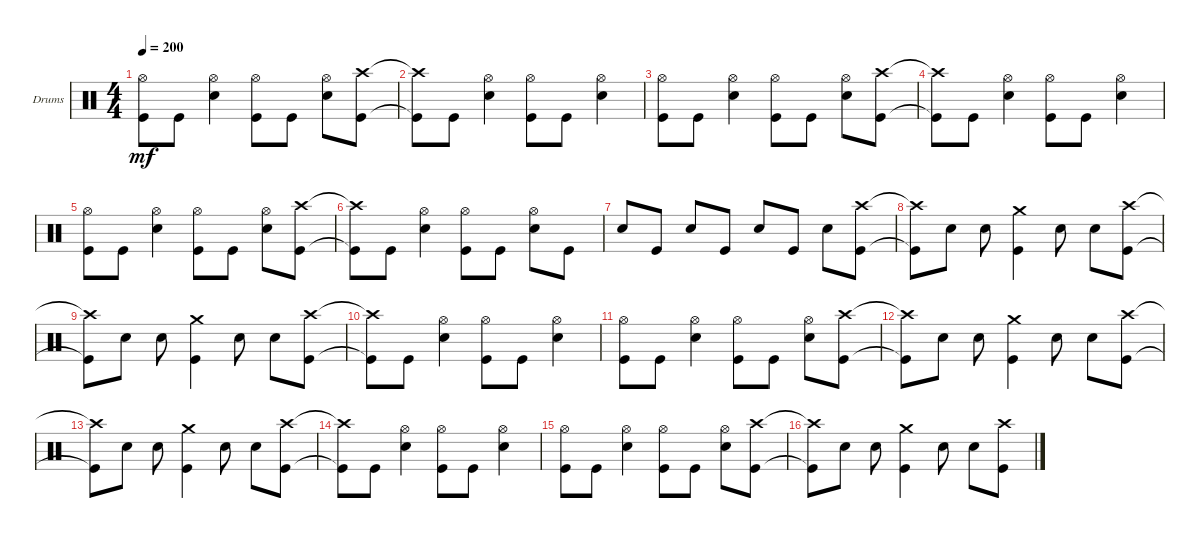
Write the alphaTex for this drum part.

\bracketExtendMode groupsimilarinstruments
\firstSystemTrackNameOrientation horizontal
\otherSystemsTrackNameOrientation horizontal
\track ("Drums" "Drums") {instrument percussion}
\staff {score}
\articulation defaults
\ts (4 4)
\tempo 200
\clef neutral
\ks c
("Kick (hit)" "Hi-Hat (open)").8{dy mf} "Kick (hit)".8 ("Snare (hit) 2" "Hi-Hat (open)").4 ("Kick (hit)" "Hi-Hat (open)").8 "Kick (hit)".8 ("Snare (hit) 2" "Hi-Hat (open)").8 ("Kick (hit)" "Crash high (hit)").8 |
("Kick (hit)"{t} "Crash high (hit)"{t}).8 "Kick (hit)".8 ("Snare (hit) 2" "Hi-Hat (open)").4 ("Kick (hit)" "Hi-Hat (open)").8 "Kick (hit)".8 ("Snare (hit) 2" "Hi-Hat (open)").4 |
("Kick (hit)" "Hi-Hat (open)").8 "Kick (hit)".8 ("Snare (hit) 2" "Hi-Hat (open)").4 ("Kick (hit)" "Hi-Hat (open)").8 "Kick (hit)".8 ("Snare (hit) 2" "Hi-Hat (open)").8 ("Kick (hit)" "Crash high (hit)").8 |
("Kick (hit)"{t} "Crash high (hit)"{t}).8 "Kick (hit)".8 ("Snare (hit) 2" "Hi-Hat (open)").4 ("Kick (hit)" "Hi-Hat (open)").8 "Kick (hit)".8 ("Snare (hit) 2" "Hi-Hat (open)").4 |
("Kick (hit)" "Hi-Hat (open)").8 "Kick (hit)".8 ("Snare (hit) 2" "Hi-Hat (open)").4 ("Kick (hit)" "Hi-Hat (open)").8 "Kick (hit)".8 ("Snare (hit) 2" "Hi-Hat (open)").8 ("Kick (hit)" "Crash high (hit)").8 |
("Kick (hit)"{t} "Crash high (hit)"{t}).8 "Kick (hit)".8 ("Snare (hit) 2" "Hi-Hat (open)").4 ("Kick (hit)" "Hi-Hat (open)").8 "Kick (hit)".8 ("Snare (hit) 2" "Hi-Hat (open)").8 "Kick (hit)".8 |
"Snare (hit) 2".8 "Kick (hit)".8 "Snare (hit) 2".8 "Kick (hit)".8 "Snare (hit) 2".8 "Kick (hit)".8 "Snare (hit) 2".8 ("Kick (hit)" "Crash high (hit)").8 |
("Kick (hit)"{t} "Crash high (hit)"{t}).8 "Snare (hit) 2".8 "Snare (hit) 2".8 ("Kick (hit)" "Crash medium (hit)").4 "Snare (hit) 2".8 "Snare (hit) 2".8 ("Kick (hit)" "Crash high (hit)").8 |
("Kick (hit)"{t} "Crash high (hit)"{t}).8 "Snare (hit) 2".8 "Snare (hit) 2".8 ("Kick (hit)" "Crash medium (hit)").4 "Snare (hit) 2".8 "Snare (hit) 2".8 ("Kick (hit)" "Crash high (hit)").8 |
("Kick (hit)"{t} "Crash high (hit)"{t}).8 "Kick (hit)".8 ("Snare (hit) 2" "Hi-Hat (open)").4 ("Kick (hit)" "Hi-Hat (open)").8 "Kick (hit)".8 ("Snare (hit) 2" "Hi-Hat (open)").4 |
("Kick (hit)" "Hi-Hat (open)").8 "Kick (hit)".8 ("Snare (hit) 2" "Hi-Hat (open)").4 ("Kick (hit)" "Hi-Hat (open)").8 "Kick (hit)".8 ("Snare (hit) 2" "Hi-Hat (open)").8 ("Kick (hit)" "Crash high (hit)").8 |
("Kick (hit)"{t} "Crash high (hit)"{t}).8 "Snare (hit) 2".8 "Snare (hit) 2".8 ("Kick (hit)" "Crash medium (hit)").4 "Snare (hit) 2".8 "Snare (hit) 2".8 ("Kick (hit)" "Crash high (hit)").8 |
("Kick (hit)"{t} "Crash high (hit)"{t}).8 "Snare (hit) 2".8 "Snare (hit) 2".8 ("Kick (hit)" "Crash medium (hit)").4 "Snare (hit) 2".8 "Snare (hit) 2".8 ("Kick (hit)" "Crash high (hit)").8 |
("Kick (hit)"{t} "Crash high (hit)"{t}).8 "Kick (hit)".8 ("Snare (hit) 2" "Hi-Hat (open)").4 ("Kick (hit)" "Hi-Hat (open)").8 "Kick (hit)".8 ("Snare (hit) 2" "Hi-Hat (open)").4 |
("Kick (hit)" "Hi-Hat (open)").8 "Kick (hit)".8 ("Snare (hit) 2" "Hi-Hat (open)").4 ("Kick (hit)" "Hi-Hat (open)").8 "Kick (hit)".8 ("Snare (hit) 2" "Hi-Hat (open)").8 ("Kick (hit)" "Crash high (hit)").8 |
("Kick (hit)"{t} "Crash high (hit)"{t}).8 "Snare (hit) 2".8 "Snare (hit) 2".8 ("Kick (hit)" "Crash medium (hit)").4 "Snare (hit) 2".8 "Snare (hit) 2".8 ("Kick (hit)" "Crash high (hit)").8
